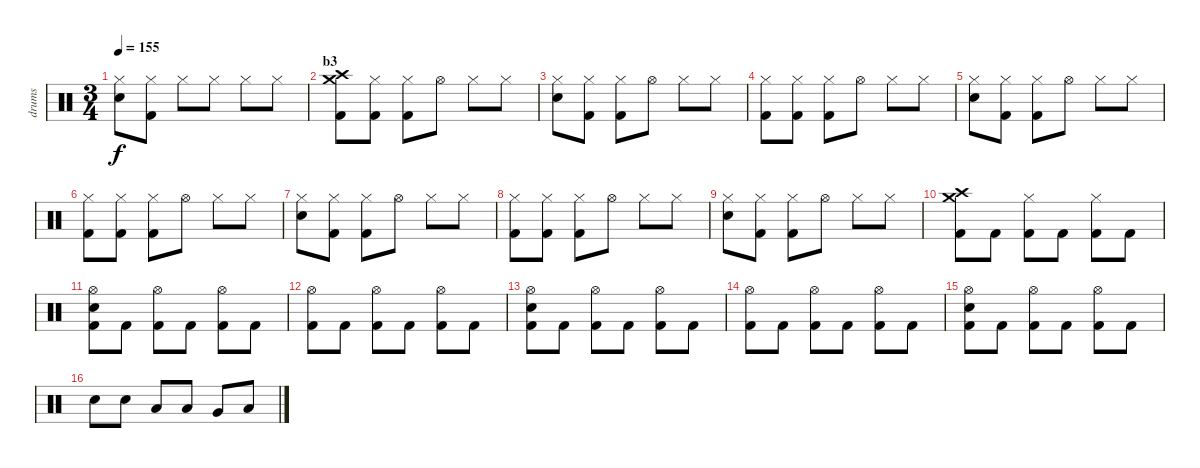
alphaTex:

\track ("drums" "drums") {instrument percussion}
\staff {score}
\articulation defaults
\ts (3 4)
\tempo 155
\clef neutral
\ks c
("Hi-Hat (closed)" "Electric Snare (hit)").8{dy f} ("Hi-Hat (closed)" "Kick (hit) 2").8 "Hi-Hat (closed)".8 "Hi-Hat (closed)".8 "Hi-Hat (closed)".8 "Hi-Hat (closed)".8 |
\section ("" "b3")
("Crash high (hit)" "Crash medium (hit)" "Kick (hit) 2").8 ("Hi-Hat (closed)" "Kick (hit) 2").8 ("Hi-Hat (closed)" "Kick (hit) 2").8 "Hi-Hat (open)".8 "Hi-Hat (closed)".8 "Hi-Hat (closed)".8 |
("Hi-Hat (closed)" "Electric Snare (hit)").8 ("Hi-Hat (closed)" "Kick (hit) 2").8 ("Hi-Hat (closed)" "Kick (hit) 2").8 "Hi-Hat (open)".8 "Hi-Hat (closed)".8 "Hi-Hat (closed)".8 |
("Hi-Hat (closed)" "Kick (hit) 2").8 ("Hi-Hat (closed)" "Kick (hit) 2").8 ("Hi-Hat (closed)" "Kick (hit) 2").8 "Hi-Hat (open)".8 "Hi-Hat (closed)".8 "Hi-Hat (closed)".8 |
("Hi-Hat (closed)" "Electric Snare (hit)").8 ("Hi-Hat (closed)" "Kick (hit) 2").8 ("Hi-Hat (closed)" "Kick (hit) 2").8 "Hi-Hat (open)".8 "Hi-Hat (closed)".8 "Hi-Hat (closed)".8 |
("Hi-Hat (closed)" "Kick (hit) 2").8 ("Hi-Hat (closed)" "Kick (hit) 2").8 ("Hi-Hat (closed)" "Kick (hit) 2").8 "Hi-Hat (open)".8 "Hi-Hat (closed)".8 "Hi-Hat (closed)".8 |
("Hi-Hat (closed)" "Electric Snare (hit)").8 ("Hi-Hat (closed)" "Kick (hit) 2").8 ("Hi-Hat (closed)" "Kick (hit) 2").8 "Hi-Hat (open)".8 "Hi-Hat (closed)".8 "Hi-Hat (closed)".8 |
("Hi-Hat (closed)" "Kick (hit) 2").8 ("Hi-Hat (closed)" "Kick (hit) 2").8 ("Hi-Hat (closed)" "Kick (hit) 2").8 "Hi-Hat (open)".8 "Hi-Hat (closed)".8 "Hi-Hat (closed)".8 |
("Hi-Hat (closed)" "Electric Snare (hit)").8 ("Hi-Hat (closed)" "Kick (hit) 2").8 ("Hi-Hat (closed)" "Kick (hit) 2").8 "Hi-Hat (open)".8 "Hi-Hat (closed)".8 "Hi-Hat (closed)".8 |
("Crash high (hit)" "Crash medium (hit)" "Kick (hit) 2").8 "Kick (hit) 2".8 ("Hi-Hat (closed)" "Kick (hit) 2").8 "Kick (hit) 2".8 ("Hi-Hat (closed)" "Kick (hit) 2").8 "Kick (hit) 2".8 |
("Hi-Hat (open)" "Electric Snare (hit)" "Kick (hit) 2").8 "Kick (hit) 2".8 ("Hi-Hat (open)" "Kick (hit) 2").8 "Kick (hit) 2".8 ("Hi-Hat (open)" "Kick (hit) 2").8 "Kick (hit) 2".8 |
("Hi-Hat (open)" "Kick (hit) 2").8 "Kick (hit) 2".8 ("Hi-Hat (open)" "Kick (hit) 2").8 "Kick (hit) 2".8 ("Hi-Hat (open)" "Kick (hit) 2").8 "Kick (hit) 2".8 |
("Hi-Hat (open)" "Electric Snare (hit)" "Kick (hit) 2").8 "Kick (hit) 2".8 ("Hi-Hat (open)" "Kick (hit) 2").8 "Kick (hit) 2".8 ("Hi-Hat (open)" "Kick (hit) 2").8 "Kick (hit) 2".8 |
("Hi-Hat (open)" "Kick (hit) 2").8 "Kick (hit) 2".8 ("Hi-Hat (open)" "Kick (hit) 2").8 "Kick (hit) 2".8 ("Hi-Hat (open)" "Kick (hit) 2").8 "Kick (hit) 2".8 |
("Hi-Hat (open)" "Electric Snare (hit)" "Kick (hit) 2").8 "Kick (hit) 2".8 ("Hi-Hat (open)" "Kick (hit) 2").8 "Kick (hit) 2".8 ("Hi-Hat (open)" "Kick (hit) 2").8 "Kick (hit) 2".8 |
"Electric Snare (hit)".8 "Electric Snare (hit)".8 "Low Tom (hit)".8 "Low Tom (hit)".8 "Very Low Tom (hit)".8 "Low Floor Tom (hit)".8
